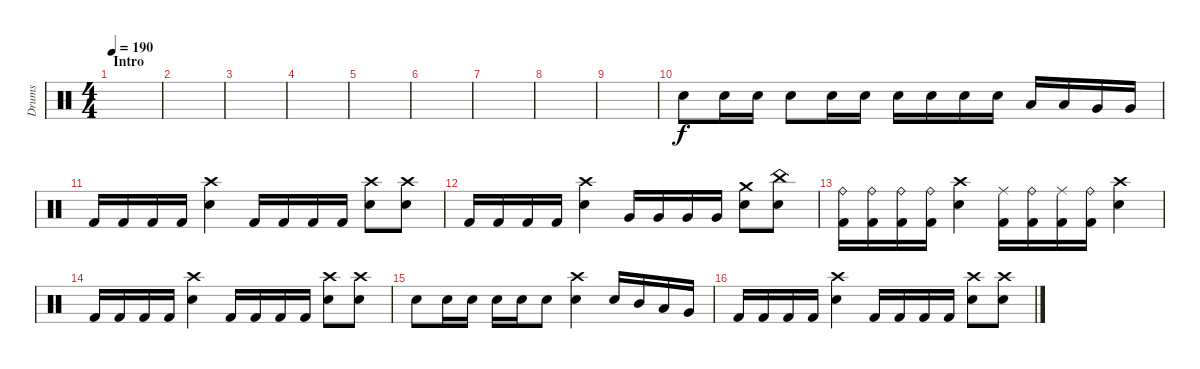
\track ("Drums" "Drums") {instrument percussion}
\staff {score}
\articulation defaults
\ts (4 4)
\section ("" "Intro")
\tempo 190
\clef neutral
\ks c
|
|
|
|
|
|
|
|
|
"Electric Snare (hit)".8 "Electric Snare (hit)".16 "Electric Snare (hit)".16 "Electric Snare (hit)".8 "Electric Snare (hit)".16 "Electric Snare (hit)".16 "Electric Snare (hit)".16 "Electric Snare (hit)".16 "Electric Snare (hit)".16 "Electric Snare (hit)".16 "Low Tom (hit)".16 "Low Tom (hit)".16 "Very Low Tom (hit)".16 "Very Low Tom (hit)".16 |
"Kick (hit) 2".16 "Kick (hit) 2".16 "Kick (hit) 2".16 "Kick (hit) 2".16 ("Electric Snare (hit)" "Crash high (hit)").4 "Kick (hit) 2".16 "Kick (hit) 2".16 "Kick (hit) 2".16 "Kick (hit) 2".16 ("Electric Snare (hit)" "Crash high (hit)").8 ("Electric Snare (hit)" "Crash high (hit)").8 |
"Kick (hit) 2".16 "Kick (hit) 2".16 "Kick (hit) 2".16 "Kick (hit) 2".16 ("Electric Snare (hit)" "Crash high (hit)").4 "Very Low Tom (hit)".16 "Very Low Tom (hit)".16 "Very Low Tom (hit)".16 "Very Low Tom (hit)".16 ("Electric Snare (hit)" "Crash medium (hit)").8 ("Electric Snare (hit)" "China (hit)").8 |
("Kick (hit) 2" "Ride (bell)").16 ("Kick (hit) 2" "Ride (bell)").16 ("Kick (hit) 2" "Ride (bell)").16 ("Kick (hit) 2" "Ride (bell)").16 ("Electric Snare (hit)" "Crash high (hit)").4 ("Kick (hit) 2" "Ride (middle)").16 ("Kick (hit) 2" "Ride (bell)").16 ("Kick (hit) 2" "Ride (middle)").16 ("Kick (hit) 2" "Ride (bell)").16 ("Electric Snare (hit)" "Crash high (hit)").4 |
"Kick (hit) 2".16 "Kick (hit) 2".16 "Kick (hit) 2".16 "Kick (hit) 2".16 ("Electric Snare (hit)" "Crash high (hit)").4 "Kick (hit) 2".16 "Kick (hit) 2".16 "Kick (hit) 2".16 "Kick (hit) 2".16 ("Electric Snare (hit)" "Crash high (hit)").8 ("Electric Snare (hit)" "Crash high (hit)").8 |
"Electric Snare (hit)".8 "Electric Snare (hit)".16 "Electric Snare (hit)".16 "Electric Snare (hit)".16 "Electric Snare (hit)".16 "Electric Snare (hit)".8 ("Electric Snare (hit)" "Crash high (hit)").4 "Electric Snare (hit)".16 "Mid Tom (hit)".16 "Low Tom (hit)".16 "Very Low Tom (hit)".16 |
"Kick (hit) 2".16 "Kick (hit) 2".16 "Kick (hit) 2".16 "Kick (hit) 2".16 ("Electric Snare (hit)" "Crash high (hit)").4 "Kick (hit) 2".16 "Kick (hit) 2".16 "Kick (hit) 2".16 "Kick (hit) 2".16 ("Electric Snare (hit)" "Crash high (hit)").8 ("Electric Snare (hit)" "Crash high (hit)").8
